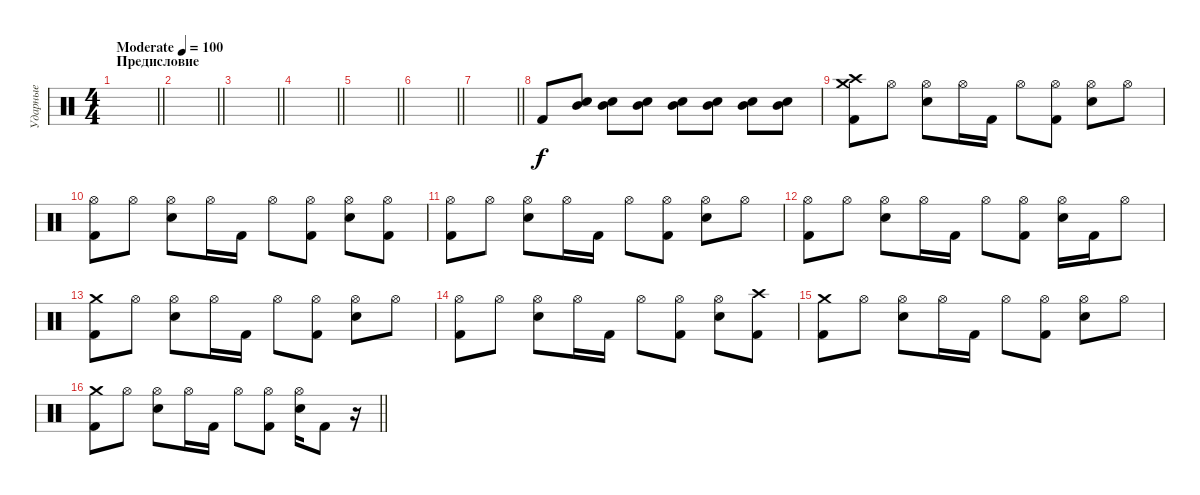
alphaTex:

\track ("Ударные" "Ударные") {instrument percussion}
\staff {score}
\articulation defaults
\ts (4 4)
\section ("" "Предисловие")
\tempo (100 "Moderate")
\clef neutral
\barLineRight lightlight
\ks c
|
\barLineRight lightlight
|
\barLineRight lightlight
|
\barLineRight lightlight
|
\barLineRight lightlight
|
\barLineRight lightlight
|
\barLineRight lightlight
|
"Kick (hit) 2".8{volume 5} ("Mid Tom (hit)" "Snare (hit) 2").8{volume 16} ("Mid Tom (hit)" "Snare (hit) 2").8 ("Mid Tom (hit)" "Snare (hit) 2").8 ("Mid Tom (hit)" "Snare (hit) 2").8 ("Mid Tom (hit)" "Snare (hit) 2").8 ("Mid Tom (hit)" "Snare (hit) 2").8 ("Mid Tom (hit)" "Snare (hit) 2").8 |
("Crash medium (hit)" "Crash high (hit)" "Kick (hit) 2").8 "Hi-Hat (open)".8 ("Hi-Hat (open)" "Snare (hit) 2").8 "Hi-Hat (open)".16 "Kick (hit) 2".16 "Hi-Hat (open)".8 ("Hi-Hat (open)" "Kick (hit) 2").8 ("Hi-Hat (open)" "Snare (hit) 2").8 "Hi-Hat (open)".8 |
("Hi-Hat (open)" "Kick (hit) 2").8 "Hi-Hat (open)".8 ("Hi-Hat (open)" "Snare (hit) 2").8 "Hi-Hat (open)".16 "Kick (hit) 2".16 "Hi-Hat (open)".8 ("Hi-Hat (open)" "Kick (hit) 2").8 ("Hi-Hat (open)" "Snare (hit) 2").8 ("Hi-Hat (open)" "Kick (hit) 2").8 |
("Hi-Hat (open)" "Kick (hit) 2").8 "Hi-Hat (open)".8 ("Hi-Hat (open)" "Snare (hit) 2").8 "Hi-Hat (open)".16 "Kick (hit) 2".16 "Hi-Hat (open)".8 ("Hi-Hat (open)" "Kick (hit) 2").8 ("Hi-Hat (open)" "Snare (hit) 2").8 "Hi-Hat (open)".8 |
("Hi-Hat (open)" "Kick (hit) 2").8 "Hi-Hat (open)".8 ("Hi-Hat (open)" "Snare (hit) 2").8 "Hi-Hat (open)".16 "Kick (hit) 2".16 "Hi-Hat (open)".8 ("Hi-Hat (open)" "Kick (hit) 2").8 ("Hi-Hat (open)" "Snare (hit) 2").16 "Kick (hit) 2".16 "Hi-Hat (open)".8 |
("Crash medium (hit)" "Kick (hit) 2").8 "Hi-Hat (open)".8 ("Hi-Hat (open)" "Snare (hit) 2").8 "Hi-Hat (open)".16 "Kick (hit) 2".16 "Hi-Hat (open)".8 ("Hi-Hat (open)" "Kick (hit) 2").8 ("Hi-Hat (open)" "Snare (hit) 2").8 "Hi-Hat (open)".8 |
("Hi-Hat (open)" "Kick (hit) 2").8 "Hi-Hat (open)".8 ("Hi-Hat (open)" "Snare (hit) 2").8 "Hi-Hat (open)".16 "Kick (hit) 2".16 "Hi-Hat (open)".8 ("Hi-Hat (open)" "Kick (hit) 2").8 ("Hi-Hat (open)" "Snare (hit) 2").8 ("Crash high (hit)" "Kick (hit) 2").8 |
("Crash medium (hit)" "Kick (hit) 2").8 "Hi-Hat (open)".8 ("Hi-Hat (open)" "Snare (hit) 2").8 "Hi-Hat (open)".16 "Kick (hit) 2".16 "Hi-Hat (open)".8 ("Hi-Hat (open)" "Kick (hit) 2").8 ("Hi-Hat (open)" "Snare (hit) 2").8 "Hi-Hat (open)".8 |
\barLineRight lightlight
("Crash medium (hit)" "Kick (hit) 2").8 "Hi-Hat (open)".8 ("Hi-Hat (open)" "Snare (hit) 2").8 "Hi-Hat (open)".16 "Kick (hit) 2".16 "Hi-Hat (open)".8 ("Hi-Hat (open)" "Kick (hit) 2").8 ("Hi-Hat (open)" "Snare (hit) 2").16 "Kick (hit) 2".8 r.16
